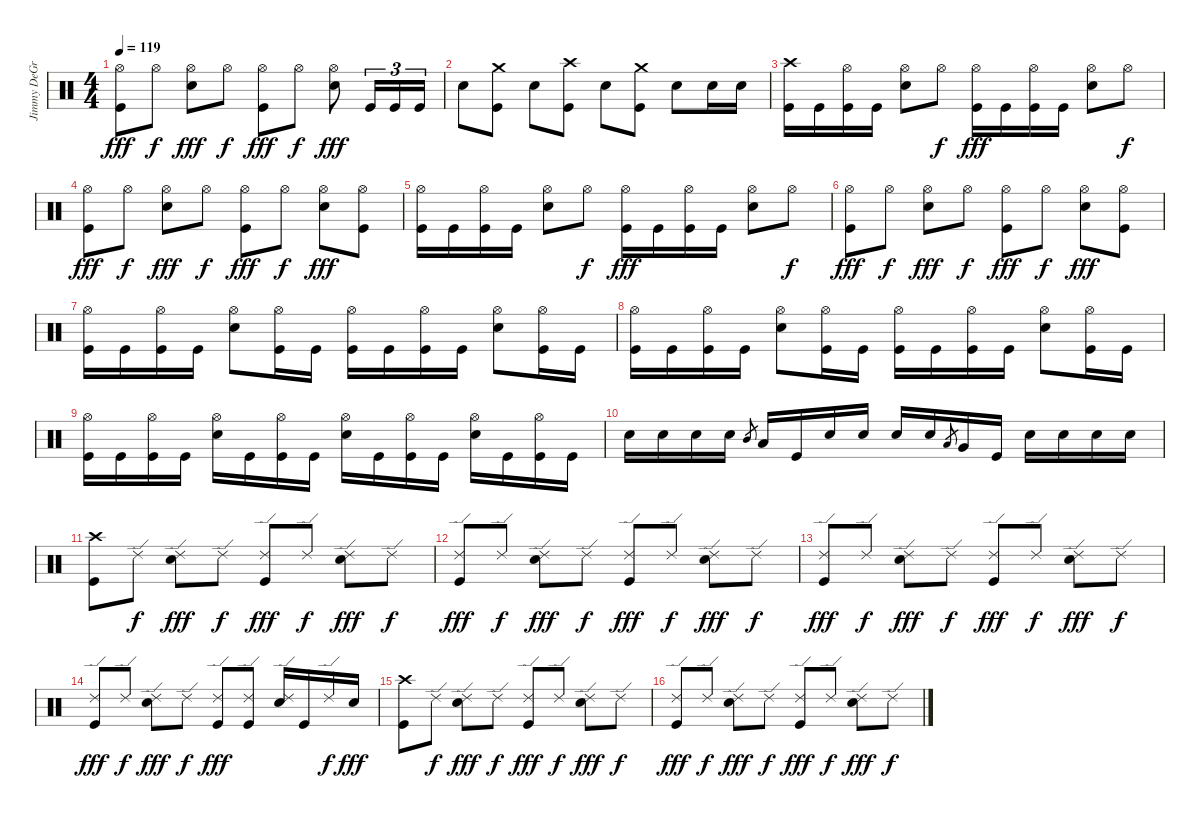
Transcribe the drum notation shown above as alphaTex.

\track ("Jimmy DeGrasso" "Jimmy DeGr") {instrument percussion}
\staff {score}
\articulation defaults
\ts (4 4)
\tempo 119
\clef neutral
\ks c
("Kick (hit)" "Hi-Hat (open)").8{dy fff} "Hi-Hat (open)".8{dy f} ("Electric Snare (hit)" "Hi-Hat (open)").8{dy fff} "Hi-Hat (open)".8{dy f} ("Kick (hit)" "Hi-Hat (open)").8{dy fff} "Hi-Hat (open)".8{dy f} ("Electric Snare (hit)" "Hi-Hat (open)").8{dy fff} "Kick (hit)".16{tu (3 2)} "Kick (hit)".16{tu (3 2)} "Kick (hit)".16{tu (3 2)} |
"Electric Snare (hit)".8 ("Kick (hit)" "Crash medium (hit)").8 "Electric Snare (hit)".8 ("Kick (hit)" "Crash high (hit)").8 "Electric Snare (hit)".8 ("Kick (hit)" "Crash medium (hit)").8 "Electric Snare (hit)".8 "Electric Snare (hit)".16 "Electric Snare (hit)".16 |
("Kick (hit)" "Crash high (hit)").16 "Kick (hit)".16 ("Kick (hit)" "Hi-Hat (open)").16 "Kick (hit)".16 ("Electric Snare (hit)" "Hi-Hat (open)").8 "Hi-Hat (open)".8{dy f} ("Kick (hit)" "Hi-Hat (open)").16{dy fff} "Kick (hit)".16 ("Kick (hit)" "Hi-Hat (open)").16 "Kick (hit)".16 ("Electric Snare (hit)" "Hi-Hat (open)").8 "Hi-Hat (open)".8{dy f} |
("Kick (hit)" "Hi-Hat (open)").8{dy fff} "Hi-Hat (open)".8{dy f} ("Electric Snare (hit)" "Hi-Hat (open)").8{dy fff} "Hi-Hat (open)".8{dy f} ("Kick (hit)" "Hi-Hat (open)").8{dy fff} "Hi-Hat (open)".8{dy f} ("Electric Snare (hit)" "Hi-Hat (open)").8{dy fff} ("Kick (hit)" "Hi-Hat (open)").8 |
("Kick (hit)" "Hi-Hat (open)").16 "Kick (hit)".16 ("Kick (hit)" "Hi-Hat (open)").16 "Kick (hit)".16 ("Electric Snare (hit)" "Hi-Hat (open)").8 "Hi-Hat (open)".8{dy f} ("Kick (hit)" "Hi-Hat (open)").16{dy fff} "Kick (hit)".16 ("Kick (hit)" "Hi-Hat (open)").16 "Kick (hit)".16 ("Electric Snare (hit)" "Hi-Hat (open)").8 "Hi-Hat (open)".8{dy f} |
("Kick (hit)" "Hi-Hat (open)").8{dy fff} "Hi-Hat (open)".8{dy f} ("Electric Snare (hit)" "Hi-Hat (open)").8{dy fff} "Hi-Hat (open)".8{dy f} ("Kick (hit)" "Hi-Hat (open)").8{dy fff} "Hi-Hat (open)".8{dy f} ("Electric Snare (hit)" "Hi-Hat (open)").8{dy fff} ("Kick (hit)" "Hi-Hat (open)").8 |
("Kick (hit)" "Hi-Hat (open)").16 "Kick (hit)".16 ("Kick (hit)" "Hi-Hat (open)").16 "Kick (hit)".16 ("Electric Snare (hit)" "Hi-Hat (open)").8 ("Kick (hit)" "Hi-Hat (open)").16 "Kick (hit)".16 ("Kick (hit)" "Hi-Hat (open)").16 "Kick (hit)".16 ("Kick (hit)" "Hi-Hat (open)").16 "Kick (hit)".16 ("Electric Snare (hit)" "Hi-Hat (open)").8 ("Kick (hit)" "Hi-Hat (open)").16 "Kick (hit)".16 |
("Kick (hit)" "Hi-Hat (open)").16 "Kick (hit)".16 ("Kick (hit)" "Hi-Hat (open)").16 "Kick (hit)".16 ("Electric Snare (hit)" "Hi-Hat (open)").8 ("Kick (hit)" "Hi-Hat (open)").16 "Kick (hit)".16 ("Kick (hit)" "Hi-Hat (open)").16 "Kick (hit)".16 ("Kick (hit)" "Hi-Hat (open)").16 "Kick (hit)".16 ("Electric Snare (hit)" "Hi-Hat (open)").8 ("Kick (hit)" "Hi-Hat (open)").16 "Kick (hit)".16 |
("Kick (hit)" "Hi-Hat (open)").16 "Kick (hit)".16 ("Kick (hit)" "Hi-Hat (open)").16 "Kick (hit)".16 ("Electric Snare (hit)" "Hi-Hat (open)").16 "Kick (hit)".16 ("Kick (hit)" "Hi-Hat (open)").16 "Kick (hit)".16 ("Electric Snare (hit)" "Hi-Hat (open)").16 "Kick (hit)".16 ("Kick (hit)" "Hi-Hat (open)").16 "Kick (hit)".16 ("Electric Snare (hit)" "Hi-Hat (open)").16 "Kick (hit)".16 ("Kick (hit)" "Hi-Hat (open)").16 "Kick (hit)".16 |
"Electric Snare (hit)".16 "Electric Snare (hit)".16 "Electric Snare (hit)".16 "Electric Snare (hit)".16 "Mid Tom (hit)".8{gr} "Low Tom (hit)".16 "Kick (hit)".16 "Electric Snare (hit)".16 "Electric Snare (hit)".16 "Electric Snare (hit)".16 "Electric Snare (hit)".16 "Low Tom (hit)".8{gr} "Very Low Tom (hit)".16 "Kick (hit)".16 "Electric Snare (hit)".16 "Electric Snare (hit)".16 "Electric Snare (hit)".16 "Electric Snare (hit)".16 |
("Kick (hit)" "Crash high (hit)").8 "Ride (edge) 2".8{dy f} ("Electric Snare (hit)" "Ride (edge) 2").8{dy fff} "Ride (edge) 2".8{dy f} ("Kick (hit)" "Ride (edge) 2").8{dy fff} "Ride (edge) 2".8{dy f} ("Electric Snare (hit)" "Ride (edge) 2").8{dy fff} "Ride (edge) 2".8{dy f} |
("Kick (hit)" "Ride (edge) 2").8{dy fff} "Ride (edge) 2".8{dy f} ("Electric Snare (hit)" "Ride (edge) 2").8{dy fff} "Ride (edge) 2".8{dy f} ("Kick (hit)" "Ride (edge) 2").8{dy fff} "Ride (edge) 2".8{dy f} ("Electric Snare (hit)" "Ride (edge) 2").8{dy fff} "Ride (edge) 2".8{dy f} |
("Kick (hit)" "Ride (edge) 2").8{dy fff} "Ride (edge) 2".8{dy f} ("Electric Snare (hit)" "Ride (edge) 2").8{dy fff} "Ride (edge) 2".8{dy f} ("Kick (hit)" "Ride (edge) 2").8{dy fff} "Ride (edge) 2".8{dy f} ("Electric Snare (hit)" "Ride (edge) 2").8{dy fff} "Ride (edge) 2".8{dy f} |
("Kick (hit)" "Ride (edge) 2").8{dy fff} "Ride (edge) 2".8{dy f} ("Electric Snare (hit)" "Ride (edge) 2").8{dy fff} "Ride (edge) 2".8{dy f} ("Kick (hit)" "Ride (edge) 2").8{dy fff} ("Kick (hit)" "Ride (edge) 2").8 ("Electric Snare (hit)" "Ride (edge) 2").16 "Kick (hit)".16 "Ride (edge) 2".16{dy f} "Electric Snare (hit)".16{dy fff} |
("Kick (hit)" "Crash high (hit)").8 "Ride (edge) 2".8{dy f} ("Electric Snare (hit)" "Ride (edge) 2").8{dy fff} "Ride (edge) 2".8{dy f} ("Kick (hit)" "Ride (edge) 2").8{dy fff} "Ride (edge) 2".8{dy f} ("Electric Snare (hit)" "Ride (edge) 2").8{dy fff} "Ride (edge) 2".8{dy f} |
("Kick (hit)" "Ride (edge) 2").8{dy fff} "Ride (edge) 2".8{dy f} ("Electric Snare (hit)" "Ride (edge) 2").8{dy fff} "Ride (edge) 2".8{dy f} ("Kick (hit)" "Ride (edge) 2").8{dy fff} "Ride (edge) 2".8{dy f} ("Electric Snare (hit)" "Ride (edge) 2").8{dy fff} "Ride (edge) 2".8{dy f}
